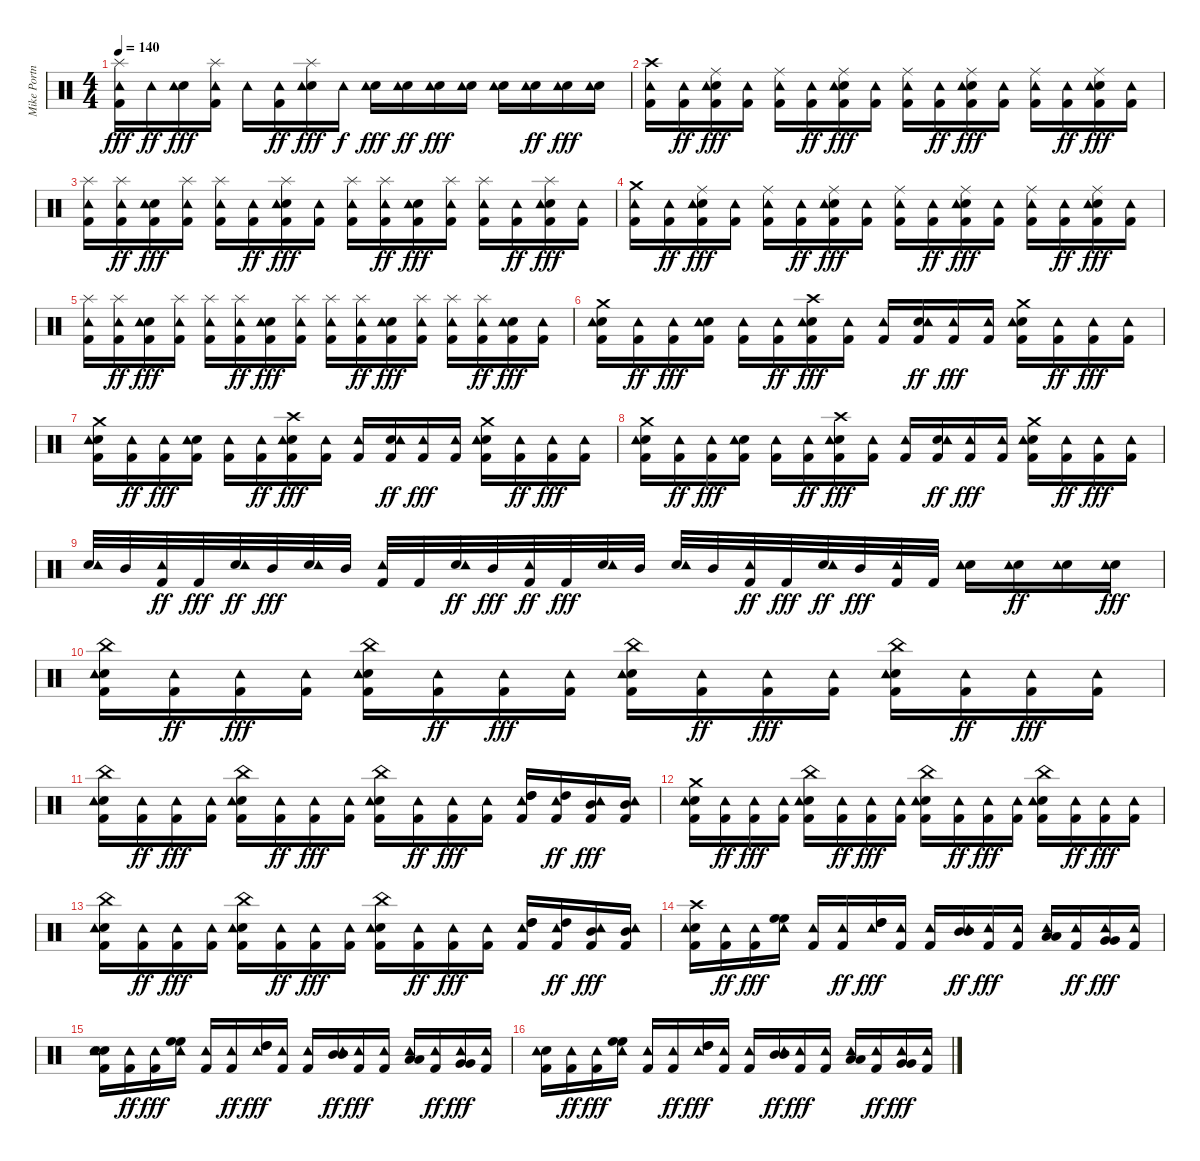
\track ("Mike Portnoy - Drum" "Mike Portn") {instrument percussion}
\staff {score}
\articulation defaults
\ts (4 4)
\tempo 140
\clef neutral
\ks c
("Splash (hit)" "Kick (hit) 2" "Tambourine (hit)").16{dy fff} "Tambourine (hit)".16{dy ff} ("Snare (hit) 2" "Tambourine (hit)").16{dy fff} ("Splash (hit)" "Kick (hit) 2" "Tambourine (hit)").16 "Tambourine (hit)".16 ("Kick (hit) 2" "Tambourine (hit)").16{dy ff} ("Splash (hit)" "Snare (hit) 2" "Tambourine (hit)").16{dy fff} "Tambourine (hit)".16{dy f} ("Snare (hit) 2" "Tambourine (hit)").16{dy fff} ("Snare (hit) 2" "Tambourine (hit)").16{dy ff} ("Snare (hit) 2" "Tambourine (hit)").16{dy fff} ("Snare (hit) 2" "Tambourine (hit)").16 ("Snare (hit) 2" "Tambourine (hit)").16 ("Snare (hit) 2" "Tambourine (hit)").16{dy ff} ("Snare (hit) 2" "Tambourine (hit)").16{dy fff} ("Snare (hit) 2" "Tambourine (hit)").16 |
("Crash high (hit)" "Kick (hit) 2" "Tambourine (hit)").16 ("Kick (hit) 2" "Tambourine (hit)").16{dy ff} ("Ride (middle)" "Snare (hit) 2" "Kick (hit) 2" "Tambourine (hit)").16{dy fff} ("Kick (hit) 2" "Tambourine (hit)").16 ("Ride (middle)" "Kick (hit) 2" "Tambourine (hit)").16 ("Kick (hit) 2" "Tambourine (hit)").16{dy ff} ("Ride (middle)" "Snare (hit) 2" "Kick (hit) 2" "Tambourine (hit)").16{dy fff} ("Kick (hit) 2" "Tambourine (hit)").16 ("Ride (middle)" "Kick (hit) 2" "Tambourine (hit)").16 ("Kick (hit) 2" "Tambourine (hit)").16{dy ff} ("Ride (middle)" "Snare (hit) 2" "Kick (hit) 2" "Tambourine (hit)").16{dy fff} ("Kick (hit) 2" "Tambourine (hit)").16 ("Ride (middle)" "Kick (hit) 2" "Tambourine (hit)").16 ("Kick (hit) 2" "Tambourine (hit)").16{dy ff} ("Ride (middle)" "Snare (hit) 2" "Kick (hit) 2" "Tambourine (hit)").16{dy fff} ("Kick (hit) 2" "Tambourine (hit)").16 |
("Splash (hit)" "Kick (hit) 2" "Tambourine (hit)").16 ("Splash (hit)" "Kick (hit) 2" "Tambourine (hit)").16{dy ff} ("Snare (hit) 2" "Kick (hit) 2" "Tambourine (hit)").16{dy fff} ("Splash (hit)" "Kick (hit) 2" "Tambourine (hit)").16 ("Splash (hit)" "Kick (hit) 2" "Tambourine (hit)").16 ("Kick (hit) 2" "Tambourine (hit)").16{dy ff} ("Splash (hit)" "Snare (hit) 2" "Kick (hit) 2" "Tambourine (hit)").16{dy fff} ("Kick (hit) 2" "Tambourine (hit)").16 ("Splash (hit)" "Kick (hit) 2" "Tambourine (hit)").16 ("Splash (hit)" "Kick (hit) 2" "Tambourine (hit)").16{dy ff} ("Snare (hit) 2" "Kick (hit) 2" "Tambourine (hit)").16{dy fff} ("Splash (hit)" "Kick (hit) 2" "Tambourine (hit)").16 ("Splash (hit)" "Kick (hit) 2" "Tambourine (hit)").16 ("Kick (hit) 2" "Tambourine (hit)").16{dy ff} ("Splash (hit)" "Snare (hit) 2" "Kick (hit) 2" "Tambourine (hit)").16{dy fff} ("Kick (hit) 2" "Tambourine (hit)").16 |
("Crash medium (hit)" "Kick (hit) 2" "Tambourine (hit)").16 ("Kick (hit) 2" "Tambourine (hit)").16{dy ff} ("Ride (middle)" "Snare (hit) 2" "Kick (hit) 2" "Tambourine (hit)").16{dy fff} ("Kick (hit) 2" "Tambourine (hit)").16 ("Ride (middle)" "Kick (hit) 2" "Tambourine (hit)").16 ("Kick (hit) 2" "Tambourine (hit)").16{dy ff} ("Ride (middle)" "Snare (hit) 2" "Kick (hit) 2" "Tambourine (hit)").16{dy fff} ("Kick (hit) 2" "Tambourine (hit)").16 ("Ride (middle)" "Kick (hit) 2" "Tambourine (hit)").16 ("Kick (hit) 2" "Tambourine (hit)").16{dy ff} ("Ride (middle)" "Snare (hit) 2" "Kick (hit) 2" "Tambourine (hit)").16{dy fff} ("Kick (hit) 2" "Tambourine (hit)").16 ("Ride (middle)" "Kick (hit) 2" "Tambourine (hit)").16 ("Kick (hit) 2" "Tambourine (hit)").16{dy ff} ("Ride (middle)" "Snare (hit) 2" "Kick (hit) 2" "Tambourine (hit)").16{dy fff} ("Kick (hit) 2" "Tambourine (hit)").16 |
("Splash (hit)" "Kick (hit) 2" "Tambourine (hit)").16 ("Splash (hit)" "Kick (hit) 2" "Tambourine (hit)").16{dy ff} ("Snare (hit) 2" "Kick (hit) 2" "Tambourine (hit)").16{dy fff} ("Splash (hit)" "Kick (hit) 2" "Tambourine (hit)").16 ("Splash (hit)" "Kick (hit) 2" "Tambourine (hit)").16 ("Splash (hit)" "Kick (hit) 2" "Tambourine (hit)").16{dy ff} ("Snare (hit) 2" "Kick (hit) 2" "Tambourine (hit)").16{dy fff} ("Splash (hit)" "Kick (hit) 2" "Tambourine (hit)").16 ("Splash (hit)" "Kick (hit) 2" "Tambourine (hit)").16 ("Splash (hit)" "Kick (hit) 2" "Tambourine (hit)").16{dy ff} ("Snare (hit) 2" "Kick (hit) 2" "Tambourine (hit)").16{dy fff} ("Splash (hit)" "Kick (hit) 2" "Tambourine (hit)").16 ("Splash (hit)" "Kick (hit) 2" "Tambourine (hit)").16 ("Splash (hit)" "Kick (hit) 2" "Tambourine (hit)").16{dy ff} ("Snare (hit) 2" "Kick (hit) 2" "Tambourine (hit)").16{dy fff} ("Kick (hit) 2" "Tambourine (hit)").16 |
("Crash medium (hit)" "Snare (hit) 2" "Kick (hit) 2" "Tambourine (hit)").16 ("Kick (hit) 2" "Tambourine (hit)").16{dy ff} ("Kick (hit) 2" "Tambourine (hit)").16{dy fff} ("Snare (hit) 2" "Kick (hit) 2" "Tambourine (hit)").16 ("Kick (hit) 2" "Tambourine (hit)").16 ("Kick (hit) 2" "Tambourine (hit)").16{dy ff} ("Crash high (hit)" "Snare (hit) 2" "Kick (hit) 2" "Tambourine (hit)").16{dy fff} ("Kick (hit) 2" "Tambourine (hit)").16 ("Kick (hit) 2" "Tambourine (hit)").16 ("Snare (hit) 2" "Kick (hit) 2" "Tambourine (hit)").16{dy ff} ("Kick (hit) 2" "Tambourine (hit)").16{dy fff} ("Kick (hit) 2" "Tambourine (hit)").16 ("Crash medium (hit)" "Snare (hit) 2" "Kick (hit) 2" "Tambourine (hit)").16 ("Kick (hit) 2" "Tambourine (hit)").16{dy ff} ("Kick (hit) 2" "Tambourine (hit)").16{dy fff} ("Kick (hit) 2" "Tambourine (hit)").16 |
("Crash medium (hit)" "Snare (hit) 2" "Kick (hit) 2" "Tambourine (hit)").16 ("Kick (hit) 2" "Tambourine (hit)").16{dy ff} ("Kick (hit) 2" "Tambourine (hit)").16{dy fff} ("Snare (hit) 2" "Kick (hit) 2" "Tambourine (hit)").16 ("Kick (hit) 2" "Tambourine (hit)").16 ("Kick (hit) 2" "Tambourine (hit)").16{dy ff} ("Crash high (hit)" "Snare (hit) 2" "Kick (hit) 2" "Tambourine (hit)").16{dy fff} ("Kick (hit) 2" "Tambourine (hit)").16 ("Kick (hit) 2" "Tambourine (hit)").16 ("Snare (hit) 2" "Kick (hit) 2" "Tambourine (hit)").16{dy ff} ("Kick (hit) 2" "Tambourine (hit)").16{dy fff} ("Kick (hit) 2" "Tambourine (hit)").16 ("Crash medium (hit)" "Snare (hit) 2" "Kick (hit) 2" "Tambourine (hit)").16 ("Kick (hit) 2" "Tambourine (hit)").16{dy ff} ("Kick (hit) 2" "Tambourine (hit)").16{dy fff} ("Kick (hit) 2" "Tambourine (hit)").16 |
("Crash medium (hit)" "Snare (hit) 2" "Kick (hit) 2" "Tambourine (hit)").16 ("Kick (hit) 2" "Tambourine (hit)").16{dy ff} ("Kick (hit) 2" "Tambourine (hit)").16{dy fff} ("Snare (hit) 2" "Kick (hit) 2" "Tambourine (hit)").16 ("Kick (hit) 2" "Tambourine (hit)").16 ("Kick (hit) 2" "Tambourine (hit)").16{dy ff} ("Crash high (hit)" "Snare (hit) 2" "Kick (hit) 2" "Tambourine (hit)").16{dy fff} ("Kick (hit) 2" "Tambourine (hit)").16 ("Kick (hit) 2" "Tambourine (hit)").16 ("Snare (hit) 2" "Kick (hit) 2" "Tambourine (hit)").16{dy ff} ("Kick (hit) 2" "Tambourine (hit)").16{dy fff} ("Kick (hit) 2" "Tambourine (hit)").16 ("Crash medium (hit)" "Snare (hit) 2" "Kick (hit) 2" "Tambourine (hit)").16 ("Kick (hit) 2" "Tambourine (hit)").16{dy ff} ("Kick (hit) 2" "Tambourine (hit)").16{dy fff} ("Kick (hit) 2" "Tambourine (hit)").16 |
("Snare (hit) 2" "Tambourine (hit)").32 "Mid Tom (hit)".32 ("Kick (hit) 2" "Tambourine (hit)").32{dy ff} "Kick (hit) 2".32{dy fff} ("Snare (hit) 2" "Tambourine (hit)").32{dy ff} "Mid Tom (hit)".32{dy fff} ("Snare (hit) 2" "Tambourine (hit)").32 "Mid Tom (hit)".32 ("Kick (hit) 2" "Tambourine (hit)").32 "Kick (hit) 2".32 ("Snare (hit) 2" "Tambourine (hit)").32{dy ff} "Mid Tom (hit)".32{dy fff} ("Kick (hit) 2" "Tambourine (hit)").32{dy ff} "Kick (hit) 2".32{dy fff} ("Snare (hit) 2" "Tambourine (hit)").32 "Mid Tom (hit)".32 ("Snare (hit) 2" "Tambourine (hit)").32 "Mid Tom (hit)".32 ("Kick (hit) 2" "Tambourine (hit)").32{dy ff} "Kick (hit) 2".32{dy fff} ("Snare (hit) 2" "Tambourine (hit)").32{dy ff} "Mid Tom (hit)".32{dy fff} ("Kick (hit) 2" "Tambourine (hit)").32 "Kick (hit) 2".32 ("Snare (hit) 2" "Tambourine (hit)").16 ("Snare (hit) 2" "Tambourine (hit)").16{dy ff} ("Snare (hit) 2" "Tambourine (hit)").16 ("Snare (hit) 2" "Tambourine (hit)").16{dy fff} |
("China (hit)" "Snare (hit) 2" "Kick (hit) 2" "Tambourine (hit)").16 ("Kick (hit) 2" "Tambourine (hit)").16{dy ff} ("Kick (hit) 2" "Tambourine (hit)").16{dy fff} ("Kick (hit) 2" "Tambourine (hit)").16 ("China (hit)" "Snare (hit) 2" "Kick (hit) 2" "Tambourine (hit)").16 ("Kick (hit) 2" "Tambourine (hit)").16{dy ff} ("Kick (hit) 2" "Tambourine (hit)").16{dy fff} ("Kick (hit) 2" "Tambourine (hit)").16 ("China (hit)" "Snare (hit) 2" "Kick (hit) 2" "Tambourine (hit)").16 ("Kick (hit) 2" "Tambourine (hit)").16{dy ff} ("Kick (hit) 2" "Tambourine (hit)").16{dy fff} ("Kick (hit) 2" "Tambourine (hit)").16 ("China (hit)" "Snare (hit) 2" "Kick (hit) 2" "Tambourine (hit)").16 ("Kick (hit) 2" "Tambourine (hit)").16{dy ff} ("Kick (hit) 2" "Tambourine (hit)").16{dy fff} ("Kick (hit) 2" "Tambourine (hit)").16 |
("China (hit)" "Snare (hit) 2" "Kick (hit) 2" "Tambourine (hit)").16 ("Kick (hit) 2" "Tambourine (hit)").16{dy ff} ("Kick (hit) 2" "Tambourine (hit)").16{dy fff} ("Kick (hit) 2" "Tambourine (hit)").16 ("China (hit)" "Snare (hit) 2" "Kick (hit) 2" "Tambourine (hit)").16 ("Kick (hit) 2" "Tambourine (hit)").16{dy ff} ("Kick (hit) 2" "Tambourine (hit)").16{dy fff} ("Kick (hit) 2" "Tambourine (hit)").16 ("China (hit)" "Snare (hit) 2" "Kick (hit) 2" "Tambourine (hit)").16 ("Kick (hit) 2" "Tambourine (hit)").16{dy ff} ("Kick (hit) 2" "Tambourine (hit)").16{dy fff} ("Kick (hit) 2" "Tambourine (hit)").16 ("High Tom (hit)" "High Tom (hit)" "Kick (hit) 2" "Tambourine (hit)").16 ("High Tom (hit)" "Kick (hit) 2" "Tambourine (hit)").16{dy ff} ("Mid Tom (hit)" "Kick (hit) 2" "Tambourine (hit)").16{dy fff} ("Mid Tom (hit)" "Kick (hit) 2" "Tambourine (hit)").16 |
("Crash medium (hit)" "Snare (hit) 2" "Kick (hit) 2" "Tambourine (hit)").16 ("Kick (hit) 2" "Tambourine (hit)").16{dy ff} ("Kick (hit) 2" "Tambourine (hit)").16{dy fff} ("Kick (hit) 2" "Tambourine (hit)").16 ("China (hit)" "Snare (hit) 2" "Kick (hit) 2" "Tambourine (hit)").16 ("Kick (hit) 2" "Tambourine (hit)").16{dy ff} ("Kick (hit) 2" "Tambourine (hit)").16{dy fff} ("Kick (hit) 2" "Tambourine (hit)").16 ("China (hit)" "Snare (hit) 2" "Kick (hit) 2" "Tambourine (hit)").16 ("Kick (hit) 2" "Tambourine (hit)").16{dy ff} ("Kick (hit) 2" "Tambourine (hit)").16{dy fff} ("Kick (hit) 2" "Tambourine (hit)").16 ("China (hit)" "Snare (hit) 2" "Kick (hit) 2" "Tambourine (hit)").16 ("Kick (hit) 2" "Tambourine (hit)").16{dy ff} ("Kick (hit) 2" "Tambourine (hit)").16{dy fff} ("Kick (hit) 2" "Tambourine (hit)").16 |
("China (hit)" "Snare (hit) 2" "Kick (hit) 2" "Tambourine (hit)").16 ("Kick (hit) 2" "Tambourine (hit)").16{dy ff} ("Kick (hit) 2" "Tambourine (hit)").16{dy fff} ("Kick (hit) 2" "Tambourine (hit)").16 ("China (hit)" "Snare (hit) 2" "Kick (hit) 2" "Tambourine (hit)").16 ("Kick (hit) 2" "Tambourine (hit)").16{dy ff} ("Kick (hit) 2" "Tambourine (hit)").16{dy fff} ("Kick (hit) 2" "Tambourine (hit)").16 ("China (hit)" "Snare (hit) 2" "Kick (hit) 2" "Tambourine (hit)").16 ("Kick (hit) 2" "Tambourine (hit)").16{dy ff} ("Kick (hit) 2" "Tambourine (hit)").16{dy fff} ("Kick (hit) 2" "Tambourine (hit)").16 ("High Tom (hit)" "High Tom (hit)" "Kick (hit) 2" "Tambourine (hit)").16 ("High Tom (hit)" "Kick (hit) 2" "Tambourine (hit)").16{dy ff} ("Mid Tom (hit)" "Kick (hit) 2" "Tambourine (hit)").16{dy fff} ("Mid Tom (hit)" "Kick (hit) 2" "Tambourine (hit)").16 |
("Crash high (hit)" "Snare (hit) 2" "Kick (hit) 2" "Tambourine (hit)").16 ("Kick (hit) 2" "Tambourine (hit)").16{dy ff} ("Kick (hit) 2" "Tambourine (hit)").16{dy fff} ("High Floor Tom (hit)" "High Floor Tom (hit)" "Tambourine (hit)").16 ("Kick (hit) 2" "Tambourine (hit)").16 ("Kick (hit) 2" "Tambourine (hit)").16{dy ff} ("High Tom (hit)" "High Tom (hit)" "Tambourine (hit)").16{dy fff} ("Kick (hit) 2" "Tambourine (hit)").16 ("Kick (hit) 2" "Tambourine (hit)").16 ("Mid Tom (hit)" "Mid Tom (hit)" "Tambourine (hit)").16{dy ff} ("Kick (hit) 2" "Tambourine (hit)").16{dy fff} ("Kick (hit) 2" "Tambourine (hit)").16 ("Low Tom (hit)" "Low Tom (hit)" "Tambourine (hit)").16 ("Kick (hit) 2" "Tambourine (hit)").16{dy ff} ("Very Low Tom (hit)" "Very Low Tom (hit)" "Tambourine (hit)").16{dy fff} ("Kick (hit) 2" "Tambourine (hit)").16 |
("Snare (hit) 2" "Snare (hit) 2" "Kick (hit) 2" "Tambourine (hit)").16 ("Kick (hit) 2" "Tambourine (hit)").16{dy ff} ("Kick (hit) 2" "Tambourine (hit)").16{dy fff} ("High Floor Tom (hit)" "High Floor Tom (hit)" "Tambourine (hit)").16 ("Kick (hit) 2" "Tambourine (hit)").16 ("Kick (hit) 2" "Tambourine (hit)").16{dy ff} ("High Tom (hit)" "High Tom (hit)" "Tambourine (hit)").16{dy fff} ("Kick (hit) 2" "Tambourine (hit)").16 ("Kick (hit) 2" "Tambourine (hit)").16 ("Mid Tom (hit)" "Mid Tom (hit)" "Tambourine (hit)").16{dy ff} ("Kick (hit) 2" "Tambourine (hit)").16{dy fff} ("Kick (hit) 2" "Tambourine (hit)").16 ("Low Tom (hit)" "Low Tom (hit)" "Tambourine (hit)").16 ("Kick (hit) 2" "Tambourine (hit)").16{dy ff} ("Very Low Tom (hit)" "Very Low Tom (hit)" "Tambourine (hit)").16{dy fff} ("Kick (hit) 2" "Tambourine (hit)").16 |
("Snare (hit) 2" "Kick (hit) 2" "Tambourine (hit)").16 ("Kick (hit) 2" "Tambourine (hit)").16{dy ff} ("Kick (hit) 2" "Tambourine (hit)").16{dy fff} ("High Floor Tom (hit)" "High Floor Tom (hit)" "Tambourine (hit)").16 ("Kick (hit) 2" "Tambourine (hit)").16 ("Kick (hit) 2" "Tambourine (hit)").16{dy ff} ("High Tom (hit)" "High Tom (hit)" "Tambourine (hit)").16{dy fff} ("Kick (hit) 2" "Tambourine (hit)").16 ("Kick (hit) 2" "Tambourine (hit)").16 ("Mid Tom (hit)" "Mid Tom (hit)" "Tambourine (hit)").16{dy ff} ("Kick (hit) 2" "Tambourine (hit)").16{dy fff} ("Kick (hit) 2" "Tambourine (hit)").16 ("Low Tom (hit)" "Low Tom (hit)" "Tambourine (hit)").16 ("Kick (hit) 2" "Tambourine (hit)").16{dy ff} ("Very Low Tom (hit)" "Very Low Tom (hit)" "Tambourine (hit)").16{dy fff} ("Kick (hit) 2" "Tambourine (hit)").16
